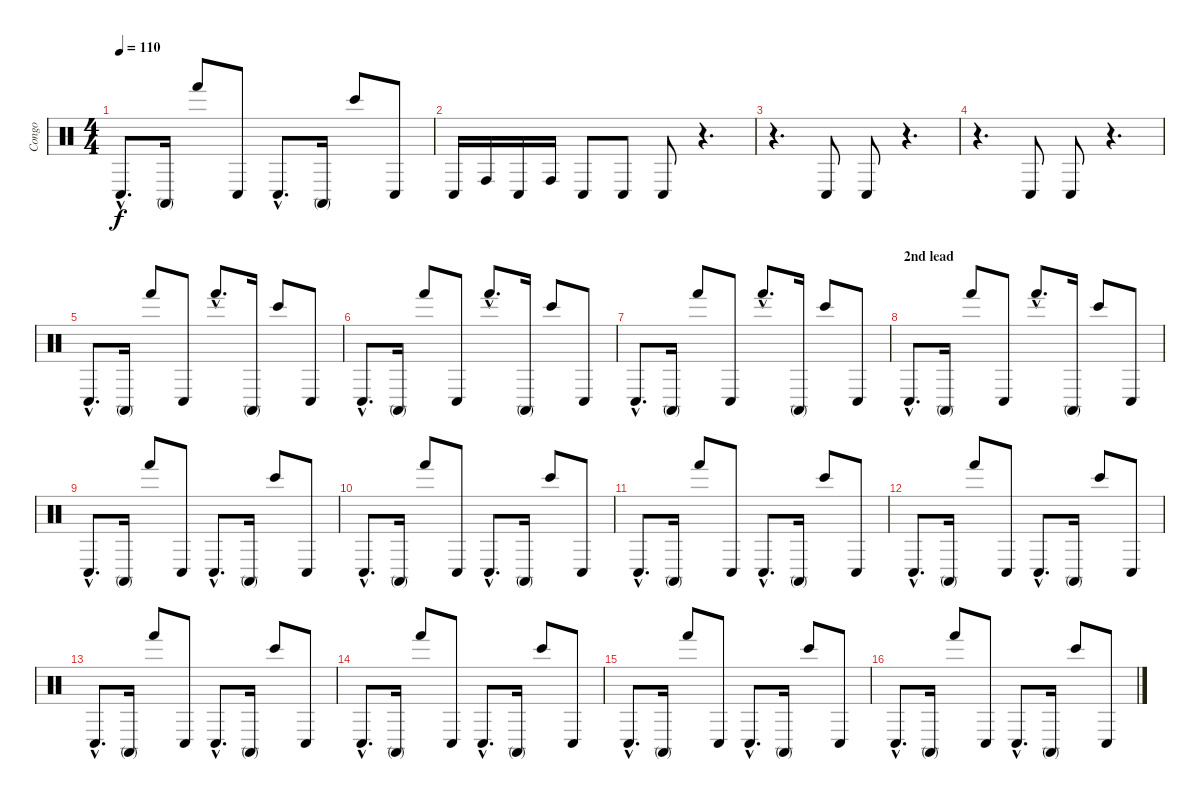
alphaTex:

\track ("Congo" "Congo") {instrument percussion}
\staff {score}
\articulation defaults
\ts (4 4)
\tempo 110
\clef neutral
\ks c "Conga low (hit)"{hac}.8{d dy f} "Conga high (mute)".16 "Hand (hit)".8 "Conga low (hit)".8 "Conga low (hit)"{hac}.8{d} "Conga high (mute)".16 "Bongo High (hit)".8 "Conga low (hit)".8
|
"Conga low (hit)".16 "Conga high (hit)".16 "Conga low (hit)".16 "Conga high (hit)".16 "Conga low (hit)".8 "Conga low (hit)".8 "Conga low (hit)".8 r.4{d} |
r.4{d} "Conga low (hit)".8 "Conga low (hit)".8 r.4{d} |
r.4{d} "Conga low (hit)".8 "Conga low (hit)".8 r.4{d} |
"Conga low (hit)"{hac}.8{d} "Conga high (mute)".16 "Hand (hit)".8 "Conga low (hit)".8 "Hand (hit)"{hac}.8{d} "Conga high (mute)".16 "Bongo High (hit)".8 "Conga low (hit)".8 |
"Conga low (hit)"{hac}.8{d} "Conga high (mute)".16 "Hand (hit)".8 "Conga low (hit)".8 "Hand (hit)"{hac}.8{d} "Conga high (mute)".16 "Bongo High (hit)".8 "Conga low (hit)".8 |
"Conga low (hit)"{hac}.8{d} "Conga high (mute)".16 "Hand (hit)".8 "Conga low (hit)".8 "Hand (hit)"{hac}.8{d} "Conga high (mute)".16 "Bongo High (hit)".8 "Conga low (hit)".8 |
\section ("" "2nd lead")
"Conga low (hit)"{hac}.8{d} "Conga high (mute)".16 "Hand (hit)".8 "Conga low (hit)".8 "Hand (hit)"{hac}.8{d} "Conga high (mute)".16 "Bongo High (hit)".8 "Conga low (hit)".8 |
"Conga low (hit)"{hac}.8{d} "Conga high (mute)".16 "Hand (hit)".8 "Conga low (hit)".8 "Conga low (hit)"{hac}.8{d} "Conga high (mute)".16 "Bongo High (hit)".8 "Conga low (hit)".8 |
"Conga low (hit)"{hac}.8{d} "Conga high (mute)".16 "Hand (hit)".8 "Conga low (hit)".8 "Conga low (hit)"{hac}.8{d} "Conga high (mute)".16 "Bongo High (hit)".8 "Conga low (hit)".8 |
"Conga low (hit)"{hac}.8{d} "Conga high (mute)".16 "Hand (hit)".8 "Conga low (hit)".8 "Conga low (hit)"{hac}.8{d} "Conga high (mute)".16 "Bongo High (hit)".8 "Conga low (hit)".8 |
"Conga low (hit)"{hac}.8{d} "Conga high (mute)".16 "Hand (hit)".8 "Conga low (hit)".8 "Conga low (hit)"{hac}.8{d} "Conga high (mute)".16 "Bongo High (hit)".8 "Conga low (hit)".8 |
"Conga low (hit)"{hac}.8{d} "Conga high (mute)".16 "Hand (hit)".8 "Conga low (hit)".8 "Conga low (hit)"{hac}.8{d} "Conga high (mute)".16 "Bongo High (hit)".8 "Conga low (hit)".8 |
"Conga low (hit)"{hac}.8{d} "Conga high (mute)".16 "Hand (hit)".8 "Conga low (hit)".8 "Conga low (hit)"{hac}.8{d} "Conga high (mute)".16 "Bongo High (hit)".8 "Conga low (hit)".8 |
"Conga low (hit)"{hac}.8{d} "Conga high (mute)".16 "Hand (hit)".8 "Conga low (hit)".8 "Conga low (hit)"{hac}.8{d} "Conga high (mute)".16 "Bongo High (hit)".8 "Conga low (hit)".8 |
"Conga low (hit)"{hac}.8{d} "Conga high (mute)".16 "Hand (hit)".8 "Conga low (hit)".8 "Conga low (hit)"{hac}.8{d} "Conga high (mute)".16 "Bongo High (hit)".8 "Conga low (hit)".8
